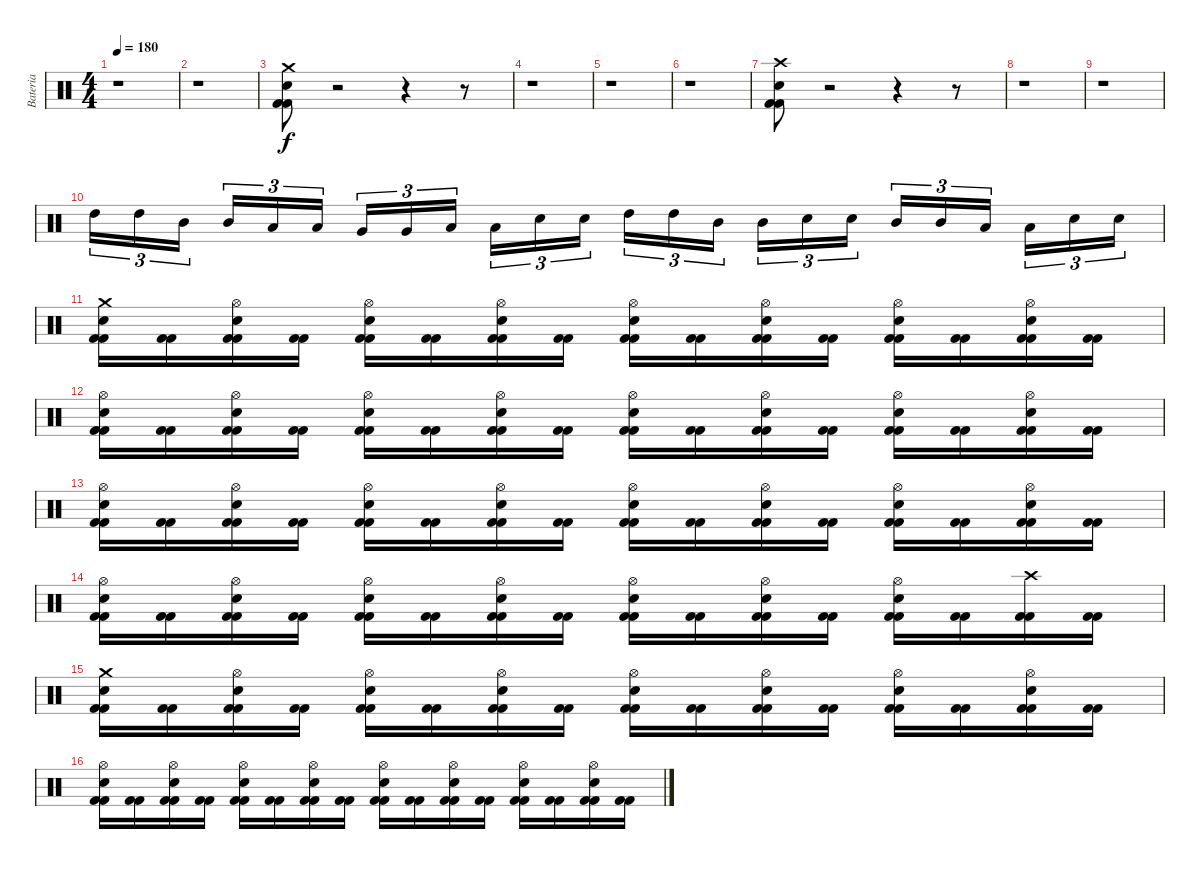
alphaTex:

\track ("Bateria" "Bateria") {instrument percussion}
\staff {score}
\articulation defaults
\ts (4 4)
\tempo 180
\clef neutral
\ks c
r.1{dy f} |
r.1 |
("Kick (hit) 2" "Kick (hit) 2" "Snare (hit) 2" "Crash medium (hit)").8 r.2 r.4 r.8 |
r.1 |
r.1 |
r.1 |
("Kick (hit) 2" "Kick (hit) 2" "Snare (hit) 2" "Crash high (hit)").8 r.2 r.4 r.8 |
r.1 |
r.1 |
"High Tom (hit)".16{tu (3 2)} "High Tom (hit)".16{tu (3 2)} "Mid Tom (hit)".16{tu (3 2)} "Mid Tom (hit)".16{tu (3 2)} "Low Tom (hit)".16{tu (3 2)} "Low Tom (hit)".16{tu (3 2)} "Very Low Tom (hit)".16{tu (3 2)} "Very Low Tom (hit)".16{tu (3 2)} "Low Floor Tom (hit)".16{tu (3 2)} "Low Floor Tom (hit)".16{tu (3 2)} "Electric Snare (hit)".16{tu (3 2)} "Electric Snare (hit)".16{tu (3 2)} "High Tom (hit)".16{tu (3 2)} "High Tom (hit)".16{tu (3 2)} "Mid Tom (hit)".16{tu (3 2)} "Mid Tom (hit)".16{tu (3 2)} "Electric Snare (hit)".16{tu (3 2)} "Electric Snare (hit)".16{tu (3 2)} "Mid Tom (hit)".16{tu (3 2)} "Mid Tom (hit)".16{tu (3 2)} "Low Tom (hit)".16{tu (3 2)} "Low Tom (hit)".16{tu (3 2)} "Electric Snare (hit)".16{tu (3 2)} "Electric Snare (hit)".16{tu (3 2)} |
("Kick (hit) 2" "Kick (hit) 2" "Snare (hit) 2" "Crash medium (hit)").16 ("Kick (hit) 2" "Kick (hit) 2").16 ("Kick (hit) 2" "Kick (hit) 2" "Hi-Hat (open)" "Snare (hit) 2").16 ("Kick (hit) 2" "Kick (hit) 2").16 ("Kick (hit) 2" "Kick (hit) 2" "Snare (hit) 2" "Hi-Hat (open)").16 ("Kick (hit) 2" "Kick (hit) 2").16 ("Kick (hit) 2" "Kick (hit) 2" "Hi-Hat (open)" "Snare (hit) 2").16 ("Kick (hit) 2" "Kick (hit) 2").16 ("Kick (hit) 2" "Kick (hit) 2" "Snare (hit) 2" "Hi-Hat (open)").16 ("Kick (hit) 2" "Kick (hit) 2").16 ("Kick (hit) 2" "Kick (hit) 2" "Hi-Hat (open)" "Snare (hit) 2").16 ("Kick (hit) 2" "Kick (hit) 2").16 ("Kick (hit) 2" "Kick (hit) 2" "Snare (hit) 2" "Hi-Hat (open)").16 ("Kick (hit) 2" "Kick (hit) 2").16 ("Kick (hit) 2" "Kick (hit) 2" "Hi-Hat (open)" "Snare (hit) 2").16 ("Kick (hit) 2" "Kick (hit) 2").16 |
("Kick (hit) 2" "Kick (hit) 2" "Snare (hit) 2" "Hi-Hat (open)").16 ("Kick (hit) 2" "Kick (hit) 2").16 ("Kick (hit) 2" "Kick (hit) 2" "Hi-Hat (open)" "Snare (hit) 2").16 ("Kick (hit) 2" "Kick (hit) 2").16 ("Kick (hit) 2" "Kick (hit) 2" "Snare (hit) 2" "Hi-Hat (open)").16 ("Kick (hit) 2" "Kick (hit) 2").16 ("Kick (hit) 2" "Kick (hit) 2" "Hi-Hat (open)" "Snare (hit) 2").16 ("Kick (hit) 2" "Kick (hit) 2").16 ("Kick (hit) 2" "Kick (hit) 2" "Snare (hit) 2" "Hi-Hat (open)").16 ("Kick (hit) 2" "Kick (hit) 2").16 ("Kick (hit) 2" "Kick (hit) 2" "Hi-Hat (open)" "Snare (hit) 2").16 ("Kick (hit) 2" "Kick (hit) 2").16 ("Kick (hit) 2" "Kick (hit) 2" "Snare (hit) 2" "Hi-Hat (open)").16 ("Kick (hit) 2" "Kick (hit) 2").16 ("Kick (hit) 2" "Kick (hit) 2" "Hi-Hat (open)" "Snare (hit) 2").16 ("Kick (hit) 2" "Kick (hit) 2").16 |
("Kick (hit) 2" "Kick (hit) 2" "Snare (hit) 2" "Hi-Hat (open)").16 ("Kick (hit) 2" "Kick (hit) 2").16 ("Kick (hit) 2" "Kick (hit) 2" "Hi-Hat (open)" "Snare (hit) 2").16 ("Kick (hit) 2" "Kick (hit) 2").16 ("Kick (hit) 2" "Kick (hit) 2" "Snare (hit) 2" "Hi-Hat (open)").16 ("Kick (hit) 2" "Kick (hit) 2").16 ("Kick (hit) 2" "Kick (hit) 2" "Hi-Hat (open)" "Snare (hit) 2").16 ("Kick (hit) 2" "Kick (hit) 2").16 ("Kick (hit) 2" "Kick (hit) 2" "Snare (hit) 2" "Hi-Hat (open)").16 ("Kick (hit) 2" "Kick (hit) 2").16 ("Kick (hit) 2" "Kick (hit) 2" "Hi-Hat (open)" "Snare (hit) 2").16 ("Kick (hit) 2" "Kick (hit) 2").16 ("Kick (hit) 2" "Kick (hit) 2" "Snare (hit) 2" "Hi-Hat (open)").16 ("Kick (hit) 2" "Kick (hit) 2").16 ("Kick (hit) 2" "Kick (hit) 2" "Hi-Hat (open)" "Snare (hit) 2").16 ("Kick (hit) 2" "Kick (hit) 2").16 |
("Kick (hit) 2" "Kick (hit) 2" "Snare (hit) 2" "Hi-Hat (open)").16 ("Kick (hit) 2" "Kick (hit) 2").16 ("Kick (hit) 2" "Kick (hit) 2" "Hi-Hat (open)" "Snare (hit) 2").16 ("Kick (hit) 2" "Kick (hit) 2").16 ("Kick (hit) 2" "Kick (hit) 2" "Snare (hit) 2" "Hi-Hat (open)").16 ("Kick (hit) 2" "Kick (hit) 2").16 ("Kick (hit) 2" "Kick (hit) 2" "Hi-Hat (open)" "Snare (hit) 2").16 ("Kick (hit) 2" "Kick (hit) 2").16 ("Kick (hit) 2" "Kick (hit) 2" "Snare (hit) 2" "Hi-Hat (open)").16 ("Kick (hit) 2" "Kick (hit) 2").16 ("Kick (hit) 2" "Kick (hit) 2" "Hi-Hat (open)" "Snare (hit) 2").16 ("Kick (hit) 2" "Kick (hit) 2").16 ("Kick (hit) 2" "Kick (hit) 2" "Snare (hit) 2" "Hi-Hat (open)").16 ("Kick (hit) 2" "Kick (hit) 2").16 ("Kick (hit) 2" "Kick (hit) 2" "Crash high (hit)").16 ("Kick (hit) 2" "Kick (hit) 2").16 |
("Kick (hit) 2" "Kick (hit) 2" "Snare (hit) 2" "Crash medium (hit)").16 ("Kick (hit) 2" "Kick (hit) 2").16 ("Kick (hit) 2" "Kick (hit) 2" "Hi-Hat (open)" "Snare (hit) 2").16 ("Kick (hit) 2" "Kick (hit) 2").16 ("Kick (hit) 2" "Kick (hit) 2" "Snare (hit) 2" "Hi-Hat (open)").16 ("Kick (hit) 2" "Kick (hit) 2").16 ("Kick (hit) 2" "Kick (hit) 2" "Hi-Hat (open)" "Snare (hit) 2").16 ("Kick (hit) 2" "Kick (hit) 2").16 ("Kick (hit) 2" "Kick (hit) 2" "Snare (hit) 2" "Hi-Hat (open)").16 ("Kick (hit) 2" "Kick (hit) 2").16 ("Kick (hit) 2" "Kick (hit) 2" "Hi-Hat (open)" "Snare (hit) 2").16 ("Kick (hit) 2" "Kick (hit) 2").16 ("Kick (hit) 2" "Kick (hit) 2" "Snare (hit) 2" "Hi-Hat (open)").16 ("Kick (hit) 2" "Kick (hit) 2").16 ("Kick (hit) 2" "Kick (hit) 2" "Hi-Hat (open)" "Snare (hit) 2").16 ("Kick (hit) 2" "Kick (hit) 2").16 |
("Kick (hit) 2" "Kick (hit) 2" "Snare (hit) 2" "Hi-Hat (open)").16 ("Kick (hit) 2" "Kick (hit) 2").16 ("Kick (hit) 2" "Kick (hit) 2" "Hi-Hat (open)" "Snare (hit) 2").16 ("Kick (hit) 2" "Kick (hit) 2").16 ("Kick (hit) 2" "Kick (hit) 2" "Snare (hit) 2" "Hi-Hat (open)").16 ("Kick (hit) 2" "Kick (hit) 2").16 ("Kick (hit) 2" "Kick (hit) 2" "Hi-Hat (open)" "Snare (hit) 2").16 ("Kick (hit) 2" "Kick (hit) 2").16 ("Kick (hit) 2" "Kick (hit) 2" "Snare (hit) 2" "Hi-Hat (open)").16 ("Kick (hit) 2" "Kick (hit) 2").16 ("Kick (hit) 2" "Kick (hit) 2" "Hi-Hat (open)" "Snare (hit) 2").16 ("Kick (hit) 2" "Kick (hit) 2").16 ("Kick (hit) 2" "Kick (hit) 2" "Snare (hit) 2" "Hi-Hat (open)").16 ("Kick (hit) 2" "Kick (hit) 2").16 ("Kick (hit) 2" "Kick (hit) 2" "Hi-Hat (open)" "Snare (hit) 2").16 ("Kick (hit) 2" "Kick (hit) 2").16
